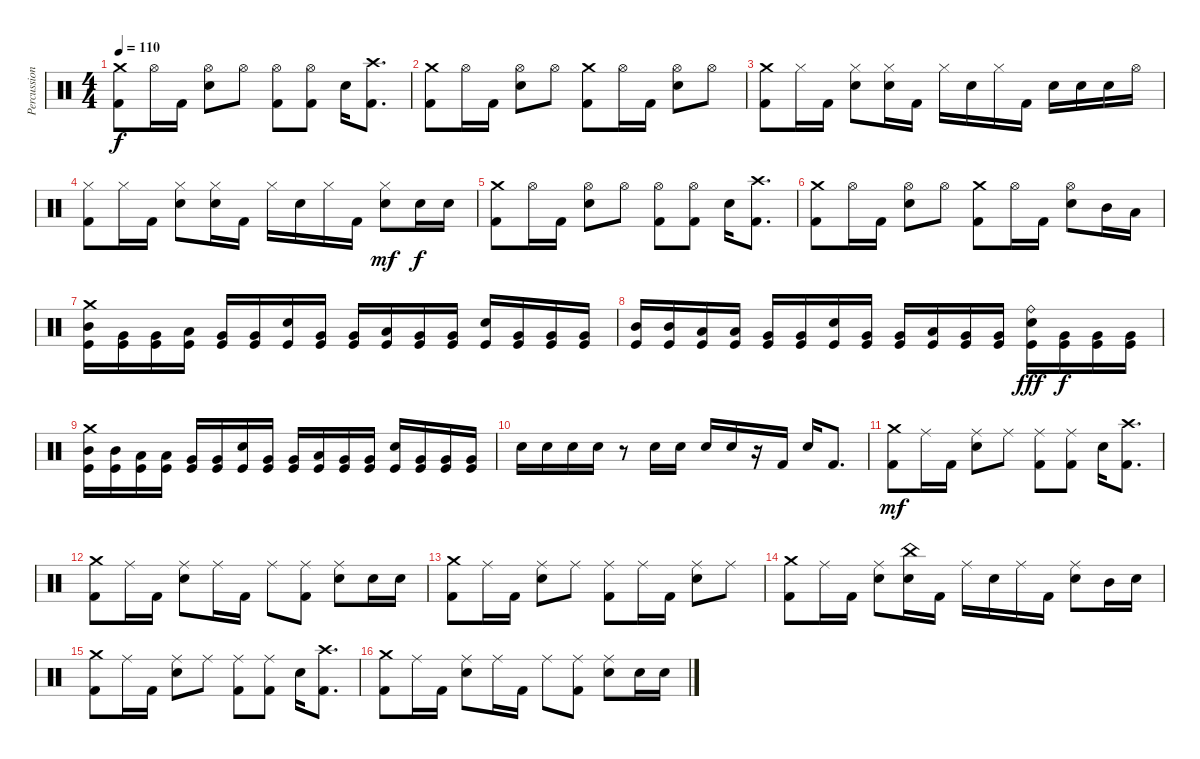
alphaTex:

\track ("Percussion" "Percussion") {instrument percussion}
\staff {score}
\articulation defaults
\ts (4 4)
\tempo 110
\clef neutral
\ks c
("Crash medium (hit)" "Kick (hit) 2").8{dy f} "Hi-Hat (open)".16 "Kick (hit) 2".16 ("Hi-Hat (open)" "Electric Snare (hit)").8 "Hi-Hat (open)".8 ("Hi-Hat (open)" "Kick (hit) 2").8 ("Hi-Hat (open)" "Kick (hit) 2").8 "Electric Snare (hit)".16 ("Crash high (hit)" "Kick (hit) 2").8{d} |
("Crash medium (hit)" "Kick (hit) 2").8 "Hi-Hat (open)".16 "Kick (hit) 2".16 ("Hi-Hat (open)" "Electric Snare (hit)").8 "Hi-Hat (open)".8 ("Crash medium (hit)" "Kick (hit) 2").8 "Hi-Hat (open)".16 "Kick (hit) 2".16 ("Hi-Hat (open)" "Electric Snare (hit)").8 "Hi-Hat (open)".8 |
("Crash medium (hit)" "Kick (hit) 2").8 "Hi-Hat (closed)".16 "Kick (hit) 2".16 ("Hi-Hat (closed)" "Electric Snare (hit)").8 ("Hi-Hat (closed)" "Electric Snare (hit)").16 "Kick (hit) 2".16 "Hi-Hat (closed)".16 "Electric Snare (hit)".16 "Hi-Hat (closed)".16 "Kick (hit) 2".16 "Electric Snare (hit)".16 "Electric Snare (hit)".16 "Electric Snare (hit)".16 "Hi-Hat (open)".16 |
("Hi-Hat (closed)" "Kick (hit) 2").8 "Hi-Hat (closed)".16 "Kick (hit) 2".16 ("Hi-Hat (closed)" "Electric Snare (hit)").8 ("Hi-Hat (closed)" "Electric Snare (hit)").16 "Kick (hit) 2".16 "Hi-Hat (closed)".16 "Electric Snare (hit)".16 "Hi-Hat (closed)".16 "Kick (hit) 2".16 ("Hi-Hat (closed)" "Electric Snare (hit)").8{dy mf} "Electric Snare (hit)".16{dy f} "Electric Snare (hit)".16 |
("Crash medium (hit)" "Kick (hit) 2").8 "Hi-Hat (open)".16 "Kick (hit) 2".16 ("Hi-Hat (open)" "Electric Snare (hit)").8 "Hi-Hat (open)".8 ("Hi-Hat (open)" "Kick (hit) 2").8 ("Hi-Hat (open)" "Kick (hit) 2").8 "Electric Snare (hit)".16 ("Crash high (hit)" "Kick (hit) 2").8{d} |
("Crash medium (hit)" "Kick (hit) 2").8 "Hi-Hat (open)".16 "Kick (hit) 2".16 ("Hi-Hat (open)" "Electric Snare (hit)").8 "Hi-Hat (open)".8 ("Crash medium (hit)" "Kick (hit) 2").8 "Hi-Hat (open)".16 "Kick (hit) 2".16 ("Hi-Hat (open)" "Electric Snare (hit)").8 "Mid Tom (hit)".16 "Low Tom (hit)".16 |
("Crash medium (hit)" "Mid Tom (hit)" "Kick (hit)").16 ("Very Low Tom (hit)" "Kick (hit)").16 ("Very Low Tom (hit)" "Kick (hit)").16 ("Low Tom (hit)" "Kick (hit)").16 ("Very Low Tom (hit)" "Kick (hit)").16 ("Very Low Tom (hit)" "Kick (hit)").16 ("Electric Snare (hit)" "Kick (hit)").16 ("Very Low Tom (hit)" "Kick (hit)").16 ("Very Low Tom (hit)" "Kick (hit)").16 ("Low Tom (hit)" "Kick (hit)").16 ("Very Low Tom (hit)" "Kick (hit)").16 ("Very Low Tom (hit)" "Kick (hit)").16 ("Electric Snare (hit)" "Kick (hit)").16 ("Very Low Tom (hit)" "Kick (hit)").16 ("Very Low Tom (hit)" "Kick (hit)").16 ("Very Low Tom (hit)" "Kick (hit)").16 |
("Mid Tom (hit)" "Kick (hit)").16 ("Mid Tom (hit)" "Kick (hit)").16 ("Low Tom (hit)" "Kick (hit)").16 ("Low Tom (hit)" "Kick (hit)").16 ("Very Low Tom (hit)" "Kick (hit)").16 ("Very Low Tom (hit)" "Kick (hit)").16 ("Electric Snare (hit)" "Kick (hit)").16 ("Very Low Tom (hit)" "Kick (hit)").16 ("Very Low Tom (hit)" "Kick (hit)").16 ("Low Tom (hit)" "Kick (hit)").16 ("Very Low Tom (hit)" "Kick (hit)").16 ("Very Low Tom (hit)" "Kick (hit)").16 ("Ride (bell)" "Electric Snare (hit)" "Kick (hit)").16{dy fff} ("Very Low Tom (hit)" "Kick (hit)").16{dy f} ("Very Low Tom (hit)" "Kick (hit)").16 ("Very Low Tom (hit)" "Kick (hit)").16 |
("Crash medium (hit)" "Mid Tom (hit)" "Kick (hit)").16 ("Mid Tom (hit)" "Kick (hit)").16 ("Low Tom (hit)" "Kick (hit)").16 ("Low Tom (hit)" "Kick (hit)").16 ("Very Low Tom (hit)" "Kick (hit)").16 ("Very Low Tom (hit)" "Kick (hit)").16 ("Electric Snare (hit)" "Kick (hit)").16 ("Very Low Tom (hit)" "Kick (hit)").16 ("Very Low Tom (hit)" "Kick (hit)").16 ("Low Tom (hit)" "Kick (hit)").16 ("Very Low Tom (hit)" "Kick (hit)").16 ("Very Low Tom (hit)" "Kick (hit)").16 ("Electric Snare (hit)" "Kick (hit)").16 ("Very Low Tom (hit)" "Kick (hit)").16 ("Very Low Tom (hit)" "Kick (hit)").16 ("Very Low Tom (hit)" "Kick (hit)").16 |
"Electric Snare (hit)".16 "Electric Snare (hit)".16 "Electric Snare (hit)".16 "Electric Snare (hit)".16 r.8 "Electric Snare (hit)".16 "Electric Snare (hit)".16 "Electric Snare (hit)".16 "Electric Snare (hit)".16 r.16 "Kick (hit) 2".16 "Electric Snare (hit)".16 "Kick (hit) 2".8{d} |
("Crash medium (hit)" "Kick (hit) 2").8{dy mf} "Ride (middle)".16 "Kick (hit) 2".16 ("Ride (middle)" "Electric Snare (hit)").8 "Ride (middle)".8 ("Ride (middle)" "Kick (hit) 2").8 ("Ride (middle)" "Kick (hit) 2").8 "Electric Snare (hit)".16 ("Crash high (hit)" "Kick (hit) 2").8{d} |
("Crash medium (hit)" "Kick (hit) 2").8 "Ride (middle)".16 "Kick (hit) 2".16 ("Ride (middle)" "Electric Snare (hit)").8 "Ride (middle)".16 "Kick (hit) 2".16 "Ride (middle)".8 ("Ride (middle)" "Kick (hit) 2").8 ("Ride (middle)" "Electric Snare (hit)").8 "Electric Snare (hit)".16 "Electric Snare (hit)".16 |
("Crash medium (hit)" "Kick (hit) 2").8 "Ride (middle)".16 "Kick (hit) 2".16 ("Ride (middle)" "Electric Snare (hit)").8 "Ride (middle)".8 ("Ride (middle)" "Kick (hit) 2").8 "Ride (middle)".16 "Kick (hit) 2".16 ("Ride (middle)" "Electric Snare (hit)").8 "Ride (middle)".8 |
("Crash medium (hit)" "Kick (hit) 2").8 "Ride (middle)".16 "Kick (hit) 2".16 ("Ride (middle)" "Electric Snare (hit)").8 ("China (hit)" "Electric Snare (hit)").16 "Kick (hit) 2".16 "Ride (middle)".16 "Electric Snare (hit)".16 "Ride (middle)".16 "Kick (hit) 2".16 ("Ride (middle)" "Electric Snare (hit)").8 "Mid Tom (hit)".16 "Electric Snare (hit)".16 |
("Crash medium (hit)" "Kick (hit) 2").8 "Ride (middle)".16 "Kick (hit) 2".16 ("Ride (middle)" "Electric Snare (hit)").8 "Ride (middle)".8 ("Ride (middle)" "Kick (hit) 2").8 ("Ride (middle)" "Kick (hit) 2").8 "Electric Snare (hit)".16 ("Crash high (hit)" "Kick (hit) 2").8{d} |
("Crash medium (hit)" "Kick (hit) 2").8 "Ride (middle)".16 "Kick (hit) 2".16 ("Ride (middle)" "Electric Snare (hit)").8 "Ride (middle)".16 "Kick (hit) 2".16 "Ride (middle)".8 ("Ride (middle)" "Kick (hit) 2").8 ("Ride (middle)" "Electric Snare (hit)").8 "Electric Snare (hit)".16 "Electric Snare (hit)".16
